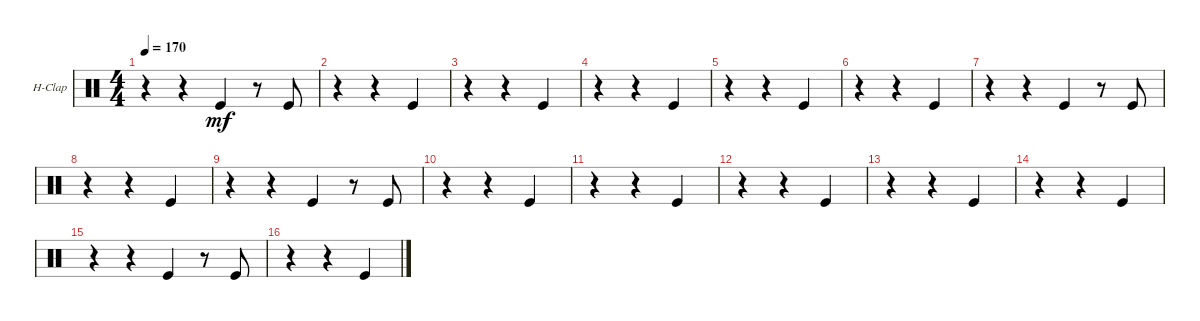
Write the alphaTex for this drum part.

\defaultSystemsLayout 4
\bracketExtendMode groupsimilarinstruments
\firstSystemTrackNameOrientation horizontal
\otherSystemsTrackNameOrientation horizontal
\track ("Hand Clap" "H-Clap") {instrument percussion}
\staff {score}
\articulation defaults
\ts (4 4)
\tempo 170
\clef neutral
\ks c
r.4{dy mf} r.4 "Kick (hit)".4 r.8 "Kick (hit)".8 |
r.4 r.4 "Kick (hit)".4 |
r.4 r.4 "Kick (hit)".4 |
r.4 r.4 "Kick (hit)".4 |
r.4 r.4 "Kick (hit)".4 |
r.4 r.4 "Kick (hit)".4 |
r.4 r.4 "Kick (hit)".4 r.8 "Kick (hit)".8 |
r.4 r.4 "Kick (hit)".4 |
r.4 r.4 "Kick (hit)".4 r.8 "Kick (hit)".8 |
r.4 r.4 "Kick (hit)".4 |
r.4 r.4 "Kick (hit)".4 |
r.4 r.4 "Kick (hit)".4 |
r.4 r.4 "Kick (hit)".4 |
r.4 r.4 "Kick (hit)".4 |
r.4 r.4 "Kick (hit)".4 r.8 "Kick (hit)".8 |
r.4 r.4 "Kick (hit)".4
